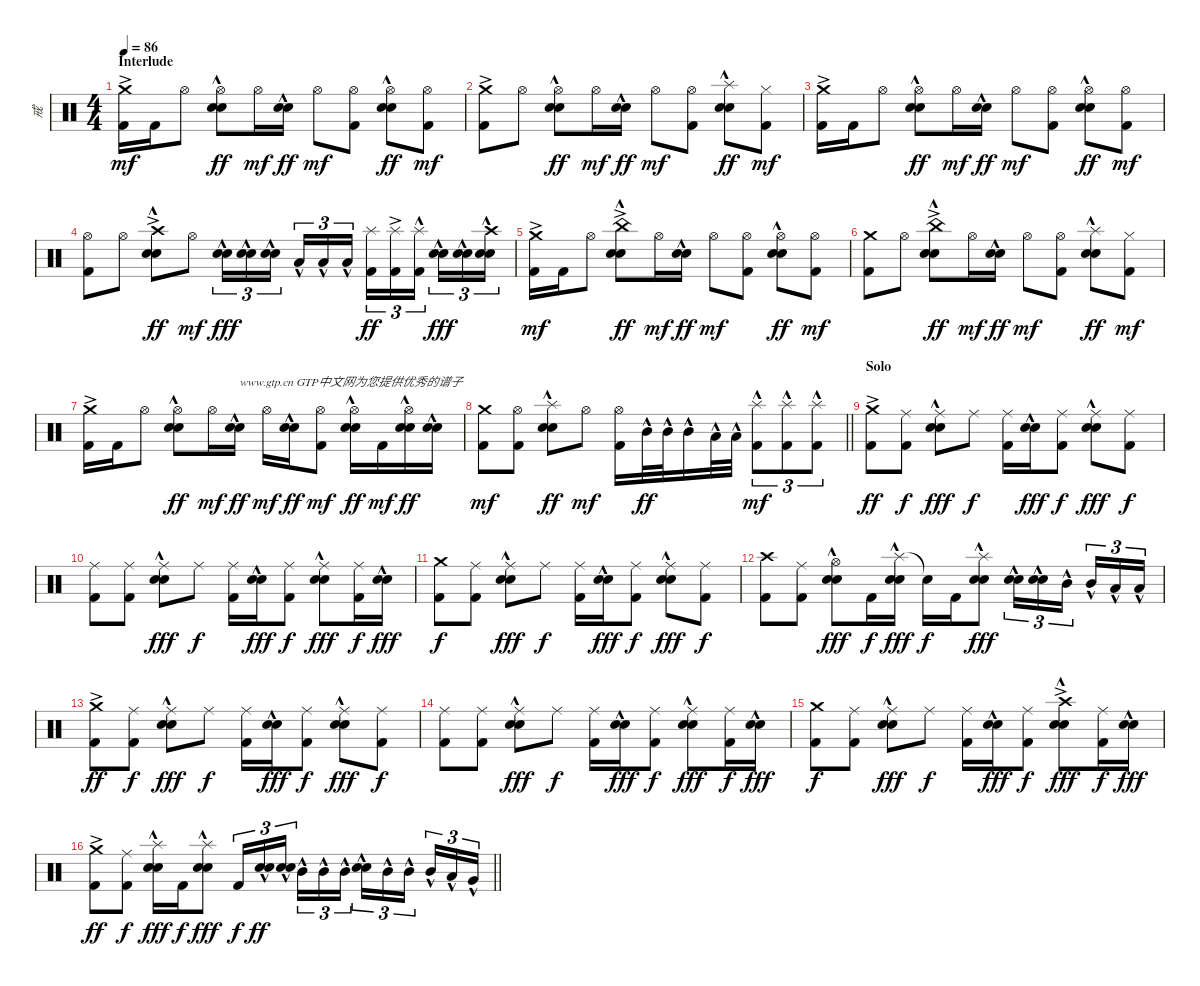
\track ("戒" "戒") {instrument percussion}
\staff {score}
\articulation defaults
\ts (4 4)
\section ("" "Interlude")
\tempo 86
\clef neutral
\ks c
("Crash medium (hit)"{ac} "Kick (hit) 2").16{dy mf} "Kick (hit) 2".16 "Hi-Hat (open)".8 ("Hi-Hat (open)" "Electric Snare (hit)"{hac} "Snare (hit) 2"{hac}).8{dy ff} "Hi-Hat (open)".16{dy mf} ("Electric Snare (hit)"{hac} "Snare (hit) 2"{hac}).16{dy ff} "Hi-Hat (open)".8{dy mf} ("Hi-Hat (open)" "Kick (hit) 2").8 ("Hi-Hat (open)" "Electric Snare (hit)"{hac} "Snare (hit) 2"{hac}).8{dy ff} ("Hi-Hat (open)" "Kick (hit) 2").8{dy mf} |
("Crash medium (hit)"{ac} "Kick (hit) 2").8 "Hi-Hat (open)".8 ("Hi-Hat (open)" "Electric Snare (hit)"{hac} "Snare (hit) 2"{hac}).8{dy ff} "Hi-Hat (open)".16{dy mf} ("Electric Snare (hit)"{hac} "Snare (hit) 2"{hac}).16{dy ff} "Hi-Hat (open)".8{dy mf} ("Hi-Hat (open)" "Kick (hit) 2").8 ("Splash (hit)"{hac} "Electric Snare (hit)"{hac} "Snare (hit) 2"{hac}).8{dy ff} ("Hi-Hat (closed)" "Kick (hit) 2").8{dy mf} |
("Crash medium (hit)"{ac} "Kick (hit) 2").16 "Kick (hit) 2".16 "Hi-Hat (open)".8 ("Hi-Hat (open)" "Electric Snare (hit)"{hac} "Snare (hit) 2"{hac}).8{dy ff} "Hi-Hat (open)".16{dy mf} ("Electric Snare (hit)"{hac} "Snare (hit) 2"{hac}).16{dy ff} "Hi-Hat (open)".8{dy mf} ("Hi-Hat (open)" "Kick (hit) 2").8 ("Hi-Hat (open)" "Electric Snare (hit)"{hac} "Snare (hit) 2"{hac}).8{dy ff} ("Hi-Hat (open)" "Kick (hit) 2").8{dy mf} |
("Hi-Hat (open)" "Kick (hit) 2").8 "Hi-Hat (open)".8 ("Crash high (hit)"{ac} "Electric Snare (hit)"{hac} "Snare (hit) 2"{hac}).8{dy ff} "Hi-Hat (open)".8{dy mf} ("Electric Snare (hit)"{hac} "Snare (hit) 2"{hac}).16{tu (3 2) dy fff} ("Electric Snare (hit)"{hac} "Snare (hit) 2"{hac}).16{tu (3 2)} ("Electric Snare (hit)"{hac} "Snare (hit) 2"{hac}).16{tu (3 2) beam splitsecondary} "Low Tom (hit)"{hac}.16{tu (3 2)} "Low Tom (hit)"{hac}.16{tu (3 2)} "Low Tom (hit)"{hac}.16{tu (3 2)} ("Splash (hit)" "Kick (hit) 2").16{tu (3 2) dy ff} ("Splash (hit)"{ac} "Kick (hit) 2").16{tu (3 2)} ("Splash (hit)"{hac} "Kick (hit) 2").16{tu (3 2) beam splitsecondary} ("Electric Snare (hit)"{hac} "Snare (hit) 2"{hac}).16{tu (3 2) dy fff} ("Electric Snare (hit)"{hac} "Snare (hit) 2"{hac}).16{tu (3 2)} ("Crash high (hit)" "Electric Snare (hit)"{hac} "Snare (hit) 2"{hac}).16{tu (3 2)} |
("Crash medium (hit)"{ac} "Kick (hit) 2").16{dy mf} "Kick (hit) 2".16 "Hi-Hat (open)".8 ("China (hit)"{ac} "Electric Snare (hit)"{hac} "Snare (hit) 2"{hac}).8{dy ff} "Hi-Hat (open)".16{dy mf} ("Electric Snare (hit)"{hac} "Snare (hit) 2"{hac}).16{dy ff} "Hi-Hat (open)".8{dy mf} ("Hi-Hat (open)" "Kick (hit) 2").8 ("Hi-Hat (open)" "Electric Snare (hit)"{hac} "Snare (hit) 2"{hac}).8{dy ff} ("Hi-Hat (open)" "Kick (hit) 2").8{dy mf} |
("Crash medium (hit)" "Kick (hit) 2").8 "Hi-Hat (open)".8 ("China (hit)"{ac} "Electric Snare (hit)"{hac} "Snare (hit) 2"{hac}).8{dy ff} "Hi-Hat (open)".16{dy mf} ("Electric Snare (hit)"{hac} "Snare (hit) 2"{hac}).16{dy ff} "Hi-Hat (open)".8{dy mf} ("Hi-Hat (open)" "Kick (hit) 2").8 ("Splash (hit)"{hac} "Electric Snare (hit)"{hac} "Snare (hit) 2"{hac}).8{dy ff} ("Hi-Hat (closed)" "Kick (hit) 2").8{dy mf} |
("Crash medium (hit)"{ac} "Kick (hit) 2").16 "Kick (hit) 2".16 "Hi-Hat (open)".8 ("Hi-Hat (open)" "Electric Snare (hit)"{hac} "Snare (hit) 2"{hac}).8{dy ff} "Hi-Hat (open)".16{dy mf} ("Electric Snare (hit)"{hac} "Snare (hit) 2"{hac}).16{txt "www.gtp.cn GTP中文网为您提供优秀的谱子" dy ff} "Hi-Hat (open)".16{dy mf} ("Electric Snare (hit)"{hac} "Snare (hit) 2"{hac}).16{dy ff} ("Hi-Hat (open)" "Kick (hit) 2").8{dy mf} ("Hi-Hat (open)" "Electric Snare (hit)"{hac} "Snare (hit) 2"{hac}).16{dy ff} "Kick (hit) 2".16{dy mf} ("Hi-Hat (open)" "Electric Snare (hit)"{hac} "Snare (hit) 2"{hac}).16{dy ff} ("Electric Snare (hit)"{hac} "Snare (hit) 2"{hac}).16 |
\barLineRight lightlight
("Crash medium (hit)" "Kick (hit) 2").8{dy mf} ("Hi-Hat (open)" "Kick (hit) 2").8 ("Splash (hit)"{hac} "Electric Snare (hit)"{hac} "Snare (hit) 2"{hac}).8{dy ff} "Hi-Hat (open)".8{dy mf} ("Hi-Hat (open)" "Kick (hit) 2").16 "Mid Tom (hit)"{hac}.32{dy ff} "Mid Tom (hit)"{hac}.32 "Mid Tom (hit)"{hac}.16 "Low Tom (hit)"{hac}.32 "Low Tom (hit)"{hac}.32 ("Splash (hit)"{hac} "Kick (hit) 2").8{tu (3 2) dy mf} ("Splash (hit)"{hac} "Kick (hit) 2").8{tu (3 2)} ("Splash (hit)"{hac} "Kick (hit) 2").8{tu (3 2)} |
\section ("" "Solo")
("Crash medium (hit)"{ac} "Kick (hit) 2").8{dy ff} ("Ride (middle)" "Kick (hit) 2").8{dy f} ("Ride (middle)" "Electric Snare (hit)"{hac} "Snare (hit) 2"{hac}).8{dy fff} "Ride (middle)".8{dy f} ("Ride (middle)" "Kick (hit) 2").16 ("Electric Snare (hit)"{hac} "Snare (hit) 2"{hac}).16{dy fff} ("Ride (middle)" "Kick (hit) 2").8{dy f} ("Ride (middle)" "Electric Snare (hit)"{hac} "Snare (hit) 2"{hac}).8{dy fff} ("Ride (middle)" "Kick (hit) 2").8{dy f} |
("Ride (middle)" "Kick (hit) 2").8 ("Ride (middle)" "Kick (hit) 2").8 ("Ride (middle)" "Electric Snare (hit)"{hac} "Snare (hit) 2"{hac}).8{dy fff} "Ride (middle)".8{dy f} ("Ride (middle)" "Kick (hit) 2").16 ("Electric Snare (hit)"{hac} "Snare (hit) 2"{hac}).16{dy fff} ("Ride (middle)" "Kick (hit) 2").8{dy f} ("Ride (middle)" "Electric Snare (hit)"{hac} "Snare (hit) 2"{hac}).8{dy fff} ("Ride (middle)" "Kick (hit) 2").16{dy f} ("Electric Snare (hit)"{hac} "Snare (hit) 2"{hac}).16{dy fff} |
("Crash medium (hit)" "Kick (hit) 2").8{dy f} ("Ride (middle)" "Kick (hit) 2").8 ("Ride (middle)" "Electric Snare (hit)"{hac} "Snare (hit) 2"{hac}).8{dy fff} "Ride (middle)".8{dy f} ("Ride (middle)" "Kick (hit) 2").16 ("Electric Snare (hit)"{hac} "Snare (hit) 2"{hac}).16{dy fff} ("Ride (middle)" "Kick (hit) 2").8{dy f} ("Ride (middle)" "Electric Snare (hit)"{hac} "Snare (hit) 2"{hac}).8{dy fff} ("Ride (middle)" "Kick (hit) 2").8{dy f} |
("Crash high (hit)" "Kick (hit) 2").8 ("Ride (middle)" "Kick (hit) 2").8 ("Hi-Hat (open)" "Electric Snare (hit)"{hac} "Snare (hit) 2"{hac}).8{dy fff} "Kick (hit) 2".16{dy f} ("Splash (hit)"{hac} "Electric Snare (hit)"{hac} "Snare (hit) 2"{hac}).16{dy fff} "Snare (hit)"{t}.16{dy f} "Kick (hit) 2".16 ("Splash (hit)"{hac} "Electric Snare (hit)"{hac} "Snare (hit) 2"{hac}).8{dy fff} ("Electric Snare (hit)"{hac} "Snare (hit) 2").16{tu (3 2)} ("Electric Snare (hit)"{hac} "Snare (hit) 2").16{tu (3 2)} "Mid Tom (hit)"{hac}.16{tu (3 2) beam splitsecondary} "Mid Tom (hit)"{hac}.16{tu (3 2)} "Low Tom (hit)"{hac}.16{tu (3 2)} "Low Tom (hit)"{hac}.16{tu (3 2)} |
("Crash medium (hit)"{ac} "Kick (hit) 2").8{dy ff} ("Ride (middle)" "Kick (hit) 2").8{dy f} ("Ride (middle)" "Electric Snare (hit)"{hac} "Snare (hit) 2"{hac}).8{dy fff} "Ride (middle)".8{dy f} ("Ride (middle)" "Kick (hit) 2").16 ("Electric Snare (hit)"{hac} "Snare (hit) 2"{hac}).16{dy fff} ("Ride (middle)" "Kick (hit) 2").8{dy f} ("Ride (middle)" "Electric Snare (hit)"{hac} "Snare (hit) 2"{hac}).8{dy fff} ("Ride (middle)" "Kick (hit) 2").8{dy f} |
("Ride (middle)" "Kick (hit) 2").8 ("Ride (middle)" "Kick (hit) 2").8 ("Ride (middle)" "Electric Snare (hit)"{hac} "Snare (hit) 2"{hac}).8{dy fff} "Ride (middle)".8{dy f} ("Ride (middle)" "Kick (hit) 2").16 ("Electric Snare (hit)"{hac} "Snare (hit) 2"{hac}).16{dy fff} ("Ride (middle)" "Kick (hit) 2").8{dy f} ("Ride (middle)" "Electric Snare (hit)"{hac} "Snare (hit) 2"{hac}).8{dy fff} ("Ride (middle)" "Kick (hit) 2").16{dy f} ("Electric Snare (hit)"{hac} "Snare (hit) 2"{hac}).16{dy fff} |
("Crash medium (hit)" "Kick (hit) 2").8{dy f} ("Ride (middle)" "Kick (hit) 2").8 ("Ride (middle)" "Electric Snare (hit)"{hac} "Snare (hit) 2"{hac}).8{dy fff} "Ride (middle)".8{dy f} ("Ride (middle)" "Kick (hit) 2").16 ("Electric Snare (hit)"{hac} "Snare (hit) 2"{hac}).16{dy fff} ("Ride (middle)" "Kick (hit) 2").8{dy f} ("Crash high (hit)"{ac} "Electric Snare (hit)"{hac} "Snare (hit) 2"{hac}).8{dy fff} ("Ride (middle)" "Kick (hit) 2").16{dy f} ("Electric Snare (hit)"{hac} "Snare (hit) 2"{hac}).16{dy fff} |
\barLineRight lightlight
("Crash medium (hit)"{ac} "Kick (hit) 2").8{dy ff} ("Ride (middle)" "Kick (hit) 2").8{dy f} ("Splash (hit)"{hac} "Electric Snare (hit)"{hac} "Snare (hit) 2"{hac}).16{dy fff} "Kick (hit) 2".16{dy f} ("Splash (hit)"{hac} "Electric Snare (hit)"{hac} "Snare (hit) 2"{hac}).8{dy fff} "Kick (hit) 2".16{tu (3 2) dy f} ("Electric Snare (hit)"{hac} "Snare (hit) 2"{hac}).16{tu (3 2) dy ff} ("Electric Snare (hit)"{hac} "Snare (hit) 2"{hac}).16{tu (3 2) beam splitsecondary} "Mid Tom (hit)"{hac}.16{tu (3 2)} "Mid Tom (hit)"{hac}.16{tu (3 2)} "Mid Tom (hit)"{hac}.16{tu (3 2)} ("Electric Snare (hit)"{hac} "Snare (hit) 2"{hac}).16{tu (3 2)} "Mid Tom (hit)"{hac}.16{tu (3 2)} "Mid Tom (hit)"{hac}.16{tu (3 2) beam splitsecondary} "Mid Tom (hit)"{hac}.16{tu (3 2)} "Low Tom (hit)"{hac}.16{tu (3 2)} "Very Low Tom (hit)"{hac}.16{tu (3 2)}
